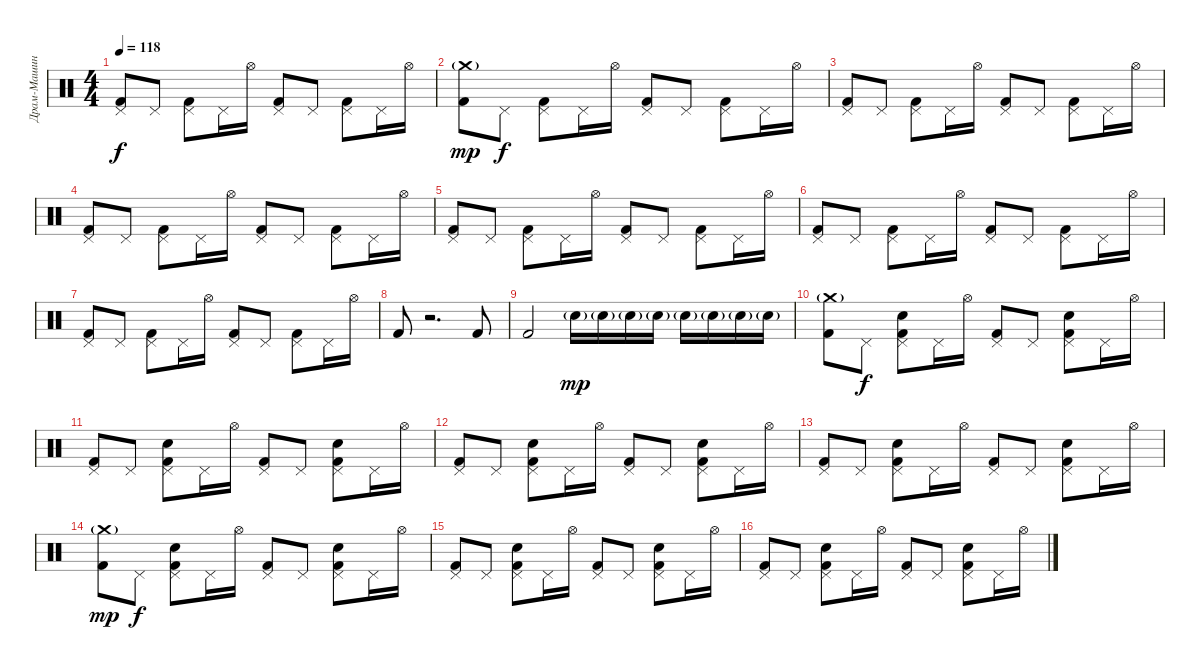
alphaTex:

\track ("Драм-Машина" "Драм-Машин") {instrument percussion}
\staff {score}
\articulation defaults
\ts (4 4)
\tempo 118
\clef neutral
\ks c
("Pedal Hi-Hat (hit)" "Kick (hit) 2").8{dy f} "Pedal Hi-Hat (hit)".8 ("Pedal Hi-Hat (hit)" "Kick (hit) 2").8 "Pedal Hi-Hat (hit)".16 "Hi-Hat (open)".16 ("Pedal Hi-Hat (hit)" "Kick (hit) 2").8 "Pedal Hi-Hat (hit)".8 ("Pedal Hi-Hat (hit)" "Kick (hit) 2").8 "Pedal Hi-Hat (hit)".16 "Hi-Hat (open)".16 |
("Crash medium (hit)"{g} "Kick (hit) 2").8{dy mp} "Pedal Hi-Hat (hit)".8{dy f} ("Pedal Hi-Hat (hit)" "Kick (hit) 2").8 "Pedal Hi-Hat (hit)".16 "Hi-Hat (open)".16 ("Pedal Hi-Hat (hit)" "Kick (hit) 2").8 "Pedal Hi-Hat (hit)".8 ("Pedal Hi-Hat (hit)" "Kick (hit) 2").8 "Pedal Hi-Hat (hit)".16 "Hi-Hat (open)".16 |
("Pedal Hi-Hat (hit)" "Kick (hit) 2").8 "Pedal Hi-Hat (hit)".8 ("Pedal Hi-Hat (hit)" "Kick (hit) 2").8 "Pedal Hi-Hat (hit)".16 "Hi-Hat (open)".16 ("Pedal Hi-Hat (hit)" "Kick (hit) 2").8 "Pedal Hi-Hat (hit)".8 ("Pedal Hi-Hat (hit)" "Kick (hit) 2").8 "Pedal Hi-Hat (hit)".16 "Hi-Hat (open)".16 |
("Pedal Hi-Hat (hit)" "Kick (hit) 2").8 "Pedal Hi-Hat (hit)".8 ("Pedal Hi-Hat (hit)" "Kick (hit) 2").8 "Pedal Hi-Hat (hit)".16 "Hi-Hat (open)".16 ("Pedal Hi-Hat (hit)" "Kick (hit) 2").8 "Pedal Hi-Hat (hit)".8 ("Pedal Hi-Hat (hit)" "Kick (hit) 2").8 "Pedal Hi-Hat (hit)".16 "Hi-Hat (open)".16 |
("Pedal Hi-Hat (hit)" "Kick (hit) 2").8 "Pedal Hi-Hat (hit)".8 ("Pedal Hi-Hat (hit)" "Kick (hit) 2").8 "Pedal Hi-Hat (hit)".16 "Hi-Hat (open)".16 ("Pedal Hi-Hat (hit)" "Kick (hit) 2").8 "Pedal Hi-Hat (hit)".8 ("Pedal Hi-Hat (hit)" "Kick (hit) 2").8 "Pedal Hi-Hat (hit)".16 "Hi-Hat (open)".16 |
("Pedal Hi-Hat (hit)" "Kick (hit) 2").8 "Pedal Hi-Hat (hit)".8 ("Pedal Hi-Hat (hit)" "Kick (hit) 2").8 "Pedal Hi-Hat (hit)".16 "Hi-Hat (open)".16 ("Pedal Hi-Hat (hit)" "Kick (hit) 2").8 "Pedal Hi-Hat (hit)".8 ("Pedal Hi-Hat (hit)" "Kick (hit) 2").8 "Pedal Hi-Hat (hit)".16 "Hi-Hat (open)".16 |
("Pedal Hi-Hat (hit)" "Kick (hit) 2").8 "Pedal Hi-Hat (hit)".8 ("Pedal Hi-Hat (hit)" "Kick (hit) 2").8 "Pedal Hi-Hat (hit)".16 "Hi-Hat (open)".16 ("Pedal Hi-Hat (hit)" "Kick (hit) 2").8 "Pedal Hi-Hat (hit)".8 ("Pedal Hi-Hat (hit)" "Kick (hit) 2").8 "Pedal Hi-Hat (hit)".16 "Hi-Hat (open)".16 |
"Kick (hit) 2".8 r.2{d} "Kick (hit) 2".8 |
"Kick (hit) 2".2 "Electric Snare (hit)"{g}.16{dy mp} "Electric Snare (hit)"{g}.16 "Electric Snare (hit)"{g}.16 "Electric Snare (hit)"{g}.16 "Electric Snare (hit)"{g}.16 "Electric Snare (hit)"{g}.16 "Electric Snare (hit)"{g}.16 "Electric Snare (hit)"{g}.16 |
("Crash medium (hit)"{g} "Kick (hit) 2").8 "Pedal Hi-Hat (hit)".8{dy f} ("Pedal Hi-Hat (hit)" "Electric Snare (hit)" "Kick (hit) 2").8 "Pedal Hi-Hat (hit)".16 "Hi-Hat (open)".16 ("Pedal Hi-Hat (hit)" "Kick (hit) 2").8 "Pedal Hi-Hat (hit)".8 ("Pedal Hi-Hat (hit)" "Electric Snare (hit)" "Kick (hit) 2").8 "Pedal Hi-Hat (hit)".16 "Hi-Hat (open)".16 |
("Pedal Hi-Hat (hit)" "Kick (hit) 2").8 "Pedal Hi-Hat (hit)".8 ("Pedal Hi-Hat (hit)" "Electric Snare (hit)" "Kick (hit) 2").8 "Pedal Hi-Hat (hit)".16 "Hi-Hat (open)".16 ("Pedal Hi-Hat (hit)" "Kick (hit) 2").8 "Pedal Hi-Hat (hit)".8 ("Pedal Hi-Hat (hit)" "Electric Snare (hit)" "Kick (hit) 2").8 "Pedal Hi-Hat (hit)".16 "Hi-Hat (open)".16 |
("Pedal Hi-Hat (hit)" "Kick (hit) 2").8 "Pedal Hi-Hat (hit)".8 ("Pedal Hi-Hat (hit)" "Electric Snare (hit)" "Kick (hit) 2").8 "Pedal Hi-Hat (hit)".16 "Hi-Hat (open)".16 ("Pedal Hi-Hat (hit)" "Kick (hit) 2").8 "Pedal Hi-Hat (hit)".8 ("Pedal Hi-Hat (hit)" "Electric Snare (hit)" "Kick (hit) 2").8 "Pedal Hi-Hat (hit)".16 "Hi-Hat (open)".16 |
("Pedal Hi-Hat (hit)" "Kick (hit) 2").8 "Pedal Hi-Hat (hit)".8 ("Pedal Hi-Hat (hit)" "Electric Snare (hit)" "Kick (hit) 2").8 "Pedal Hi-Hat (hit)".16 "Hi-Hat (open)".16 ("Pedal Hi-Hat (hit)" "Kick (hit) 2").8 "Pedal Hi-Hat (hit)".8 ("Pedal Hi-Hat (hit)" "Electric Snare (hit)" "Kick (hit) 2").8 "Pedal Hi-Hat (hit)".16 "Hi-Hat (open)".16 |
("Crash medium (hit)"{g} "Kick (hit) 2").8{dy mp} "Pedal Hi-Hat (hit)".8{dy f} ("Pedal Hi-Hat (hit)" "Electric Snare (hit)" "Kick (hit) 2").8 "Pedal Hi-Hat (hit)".16 "Hi-Hat (open)".16 ("Pedal Hi-Hat (hit)" "Kick (hit) 2").8 "Pedal Hi-Hat (hit)".8 ("Pedal Hi-Hat (hit)" "Electric Snare (hit)" "Kick (hit) 2").8 "Pedal Hi-Hat (hit)".16 "Hi-Hat (open)".16 |
("Pedal Hi-Hat (hit)" "Kick (hit) 2").8 "Pedal Hi-Hat (hit)".8 ("Pedal Hi-Hat (hit)" "Electric Snare (hit)" "Kick (hit) 2").8 "Pedal Hi-Hat (hit)".16 "Hi-Hat (open)".16 ("Pedal Hi-Hat (hit)" "Kick (hit) 2").8 "Pedal Hi-Hat (hit)".8 ("Pedal Hi-Hat (hit)" "Electric Snare (hit)" "Kick (hit) 2").8 "Pedal Hi-Hat (hit)".16 "Hi-Hat (open)".16 |
("Pedal Hi-Hat (hit)" "Kick (hit) 2").8 "Pedal Hi-Hat (hit)".8 ("Pedal Hi-Hat (hit)" "Electric Snare (hit)" "Kick (hit) 2").8 "Pedal Hi-Hat (hit)".16 "Hi-Hat (open)".16 ("Pedal Hi-Hat (hit)" "Kick (hit) 2").8 "Pedal Hi-Hat (hit)".8 ("Pedal Hi-Hat (hit)" "Electric Snare (hit)" "Kick (hit) 2").8 "Pedal Hi-Hat (hit)".16 "Hi-Hat (open)".16
